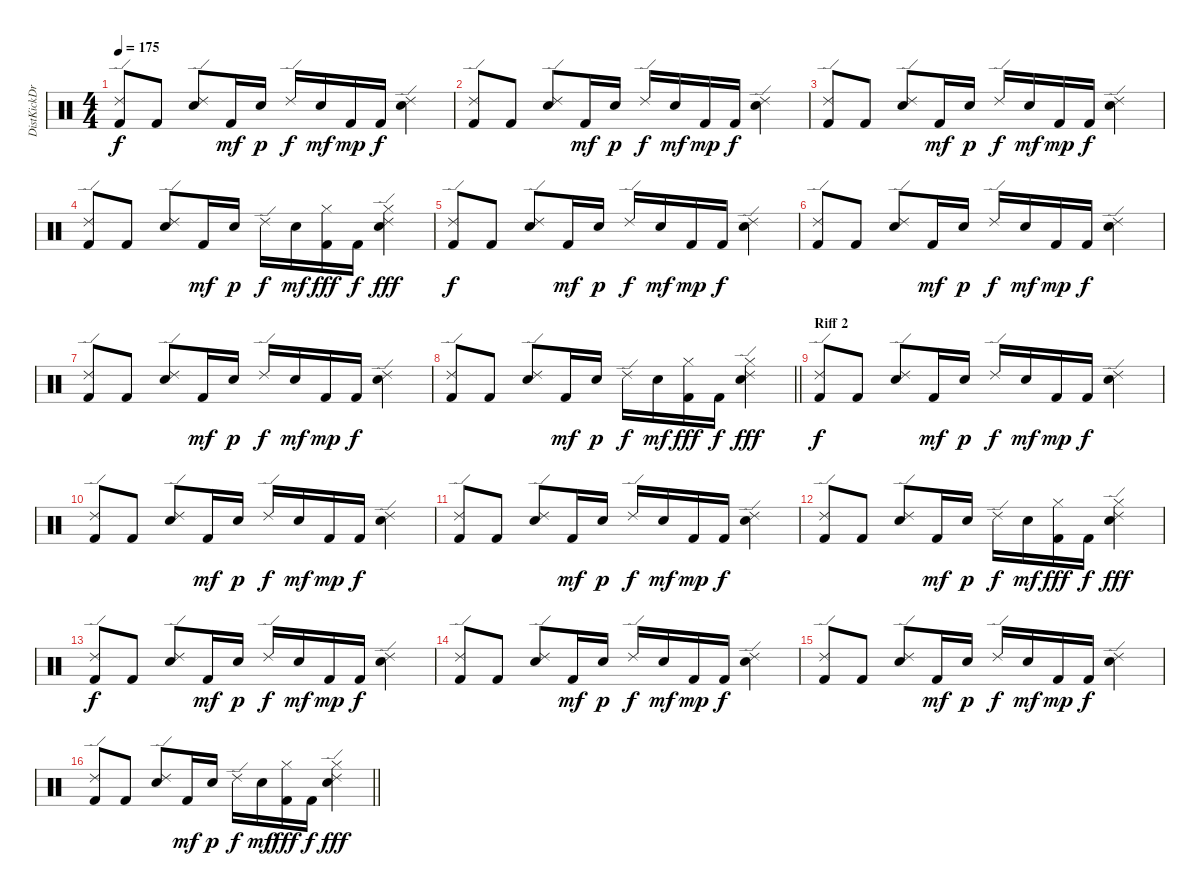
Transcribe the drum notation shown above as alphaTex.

\track ("DistKickDrums" "DistKickDr") {instrument percussion}
\staff {score}
\articulation defaults
\ts (4 4)
\tempo 175
\clef neutral
\ks c
("Kick (hit) 2" "Ride (edge) 2").8{dy f} "Kick (hit) 2".8 ("Snare (hit) 2" "Ride (edge) 2").8 "Kick (hit) 2".16{dy mf} "Snare (hit) 2".16{dy p} "Ride (edge) 2".16{dy f} "Snare (hit) 2".16{dy mf} "Kick (hit) 2".16{dy mp} "Kick (hit) 2".16{dy f} ("Snare (hit) 2" "Ride (edge) 2").4 |
("Kick (hit) 2" "Ride (edge) 2").8 "Kick (hit) 2".8 ("Snare (hit) 2" "Ride (edge) 2").8 "Kick (hit) 2".16{dy mf} "Snare (hit) 2".16{dy p} "Ride (edge) 2".16{dy f} "Snare (hit) 2".16{dy mf} "Kick (hit) 2".16{dy mp} "Kick (hit) 2".16{dy f} ("Snare (hit) 2" "Ride (edge) 2").4 |
("Kick (hit) 2" "Ride (edge) 2").8 "Kick (hit) 2".8 ("Snare (hit) 2" "Ride (edge) 2").8 "Kick (hit) 2".16{dy mf} "Snare (hit) 2".16{dy p} "Ride (edge) 2".16{dy f} "Snare (hit) 2".16{dy mf} "Kick (hit) 2".16{dy mp} "Kick (hit) 2".16{dy f} ("Snare (hit) 2" "Ride (edge) 2").4 |
("Kick (hit) 2" "Ride (edge) 2").8 "Kick (hit) 2".8 ("Snare (hit) 2" "Ride (edge) 2").8 "Kick (hit) 2".16{dy mf} "Snare (hit) 2".16{dy p} "Ride (edge) 2".16{dy f} "Snare (hit) 2".16{dy mf} ("Kick (hit) 2" "Cowbell high (tip)").16{dy fff} "Kick (hit) 2".16{dy f} ("Snare (hit) 2" "Ride (edge) 2" "Cowbell high (tip)").4{dy fff} |
("Kick (hit) 2" "Ride (edge) 2").8{dy f} "Kick (hit) 2".8 ("Snare (hit) 2" "Ride (edge) 2").8 "Kick (hit) 2".16{dy mf} "Snare (hit) 2".16{dy p} "Ride (edge) 2".16{dy f} "Snare (hit) 2".16{dy mf} "Kick (hit) 2".16{dy mp} "Kick (hit) 2".16{dy f} ("Snare (hit) 2" "Ride (edge) 2").4 |
("Kick (hit) 2" "Ride (edge) 2").8 "Kick (hit) 2".8 ("Snare (hit) 2" "Ride (edge) 2").8 "Kick (hit) 2".16{dy mf} "Snare (hit) 2".16{dy p} "Ride (edge) 2".16{dy f} "Snare (hit) 2".16{dy mf} "Kick (hit) 2".16{dy mp} "Kick (hit) 2".16{dy f} ("Snare (hit) 2" "Ride (edge) 2").4 |
("Kick (hit) 2" "Ride (edge) 2").8 "Kick (hit) 2".8 ("Snare (hit) 2" "Ride (edge) 2").8 "Kick (hit) 2".16{dy mf} "Snare (hit) 2".16{dy p} "Ride (edge) 2".16{dy f} "Snare (hit) 2".16{dy mf} "Kick (hit) 2".16{dy mp} "Kick (hit) 2".16{dy f} ("Snare (hit) 2" "Ride (edge) 2").4 |
\barLineRight lightlight
("Kick (hit) 2" "Ride (edge) 2").8 "Kick (hit) 2".8 ("Snare (hit) 2" "Ride (edge) 2").8 "Kick (hit) 2".16{dy mf} "Snare (hit) 2".16{dy p} "Ride (edge) 2".16{dy f} "Snare (hit) 2".16{dy mf} ("Kick (hit) 2" "Cowbell high (tip)").16{dy fff} "Kick (hit) 2".16{dy f} ("Snare (hit) 2" "Ride (edge) 2" "Cowbell high (tip)").4{dy fff} |
\section ("" "Riff 2")
("Kick (hit) 2" "Ride (edge) 2").8{dy f} "Kick (hit) 2".8 ("Snare (hit) 2" "Ride (edge) 2").8 "Kick (hit) 2".16{dy mf} "Snare (hit) 2".16{dy p} "Ride (edge) 2".16{dy f} "Snare (hit) 2".16{dy mf} "Kick (hit) 2".16{dy mp} "Kick (hit) 2".16{dy f} ("Snare (hit) 2" "Ride (edge) 2").4 |
("Kick (hit) 2" "Ride (edge) 2").8 "Kick (hit) 2".8 ("Snare (hit) 2" "Ride (edge) 2").8 "Kick (hit) 2".16{dy mf} "Snare (hit) 2".16{dy p} "Ride (edge) 2".16{dy f} "Snare (hit) 2".16{dy mf} "Kick (hit) 2".16{dy mp} "Kick (hit) 2".16{dy f} ("Snare (hit) 2" "Ride (edge) 2").4 |
("Kick (hit) 2" "Ride (edge) 2").8 "Kick (hit) 2".8 ("Snare (hit) 2" "Ride (edge) 2").8 "Kick (hit) 2".16{dy mf} "Snare (hit) 2".16{dy p} "Ride (edge) 2".16{dy f} "Snare (hit) 2".16{dy mf} "Kick (hit) 2".16{dy mp} "Kick (hit) 2".16{dy f} ("Snare (hit) 2" "Ride (edge) 2").4 |
("Kick (hit) 2" "Ride (edge) 2").8 "Kick (hit) 2".8 ("Snare (hit) 2" "Ride (edge) 2").8 "Kick (hit) 2".16{dy mf} "Snare (hit) 2".16{dy p} "Ride (edge) 2".16{dy f} "Snare (hit) 2".16{dy mf} ("Kick (hit) 2" "Cowbell high (tip)").16{dy fff} "Kick (hit) 2".16{dy f} ("Snare (hit) 2" "Ride (edge) 2" "Cowbell high (tip)").4{dy fff} |
("Kick (hit) 2" "Ride (edge) 2").8{dy f} "Kick (hit) 2".8 ("Snare (hit) 2" "Ride (edge) 2").8 "Kick (hit) 2".16{dy mf} "Snare (hit) 2".16{dy p} "Ride (edge) 2".16{dy f} "Snare (hit) 2".16{dy mf} "Kick (hit) 2".16{dy mp} "Kick (hit) 2".16{dy f} ("Snare (hit) 2" "Ride (edge) 2").4 |
("Kick (hit) 2" "Ride (edge) 2").8 "Kick (hit) 2".8 ("Snare (hit) 2" "Ride (edge) 2").8 "Kick (hit) 2".16{dy mf} "Snare (hit) 2".16{dy p} "Ride (edge) 2".16{dy f} "Snare (hit) 2".16{dy mf} "Kick (hit) 2".16{dy mp} "Kick (hit) 2".16{dy f} ("Snare (hit) 2" "Ride (edge) 2").4 |
("Kick (hit) 2" "Ride (edge) 2").8 "Kick (hit) 2".8 ("Snare (hit) 2" "Ride (edge) 2").8 "Kick (hit) 2".16{dy mf} "Snare (hit) 2".16{dy p} "Ride (edge) 2".16{dy f} "Snare (hit) 2".16{dy mf} "Kick (hit) 2".16{dy mp} "Kick (hit) 2".16{dy f} ("Snare (hit) 2" "Ride (edge) 2").4 |
\barLineRight lightlight
("Kick (hit) 2" "Ride (edge) 2").8 "Kick (hit) 2".8 ("Snare (hit) 2" "Ride (edge) 2").8 "Kick (hit) 2".16{dy mf} "Snare (hit) 2".16{dy p} "Ride (edge) 2".16{dy f} "Snare (hit) 2".16{dy mf} ("Kick (hit) 2" "Cowbell high (tip)").16{dy fff} "Kick (hit) 2".16{dy f} ("Snare (hit) 2" "Ride (edge) 2" "Cowbell high (tip)").4{dy fff}
